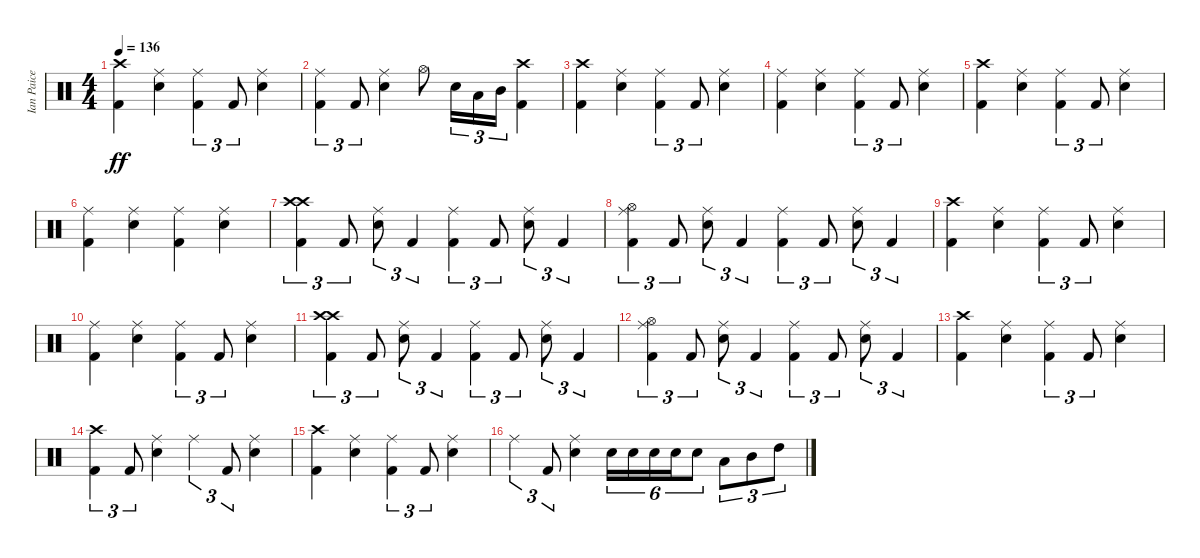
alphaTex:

\track ("Ian Paice" "Ian Paice") {instrument percussion}
\staff {score}
\articulation defaults
\ts (4 4)
\tempo 136
\clef neutral
\ks c
("Crash high (hit)" "Kick (hit) 2").4{dy ff} ("Ride (middle)" "Electric Snare (hit)").4 ("Ride (middle)" "Kick (hit) 2").4{tu (3 2)} "Kick (hit) 2".8{tu (3 2)} ("Ride (middle)" "Electric Snare (hit)").4 |
("Ride (middle)" "Kick (hit) 2").4{tu (3 2)} "Kick (hit) 2".8{tu (3 2)} ("Ride (middle)" "Electric Snare (hit)").4 "Hi-Hat (open)".8 "Electric Snare (hit)".16{tu (3 2)} "Low Tom (hit)".16{tu (3 2)} "Mid Tom (hit)".16{tu (3 2)} ("Crash high (hit)" "Kick (hit) 2").4 |
("Crash high (hit)" "Kick (hit) 2").4 ("Ride (middle)" "Electric Snare (hit)").4 ("Ride (middle)" "Kick (hit) 2").4{tu (3 2)} "Kick (hit) 2".8{tu (3 2)} ("Ride (middle)" "Electric Snare (hit)").4 |
("Ride (middle)" "Kick (hit) 2").4 ("Ride (middle)" "Electric Snare (hit)").4 ("Ride (middle)" "Kick (hit) 2").4{tu (3 2)} "Kick (hit) 2".8{tu (3 2)} ("Ride (middle)" "Electric Snare (hit)").4 |
("Crash high (hit)" "Kick (hit) 2").4 ("Ride (middle)" "Electric Snare (hit)").4 ("Ride (middle)" "Kick (hit) 2").4{tu (3 2)} "Kick (hit) 2".8{tu (3 2)} ("Ride (middle)" "Electric Snare (hit)").4 |
("Ride (middle)" "Kick (hit) 2").4 ("Ride (middle)" "Electric Snare (hit)").4 ("Ride (middle)" "Kick (hit) 2").4 ("Ride (middle)" "Electric Snare (hit)").4 |
("Crash high (hit)" "Crash high (hit)" "Kick (hit) 2").4{tu (3 2)} "Kick (hit) 2".8{tu (3 2)} ("Ride (middle)" "Electric Snare (hit)").8{tu (3 2)} "Kick (hit) 2".4{tu (3 2)} ("Ride (middle)" "Kick (hit) 2").4{tu (3 2)} "Kick (hit) 2".8{tu (3 2)} ("Ride (middle)" "Electric Snare (hit)").8{tu (3 2)} "Kick (hit) 2".4{tu (3 2)} |
("Ride (middle)" "Hi-Hat (open)" "Kick (hit) 2").4{tu (3 2)} "Kick (hit) 2".8{tu (3 2)} ("Ride (middle)" "Electric Snare (hit)").8{tu (3 2)} "Kick (hit) 2".4{tu (3 2)} ("Ride (middle)" "Kick (hit) 2").4{tu (3 2)} "Kick (hit) 2".8{tu (3 2)} ("Ride (middle)" "Electric Snare (hit)").8{tu (3 2)} "Kick (hit) 2".4{tu (3 2)} |
("Crash high (hit)" "Kick (hit) 2").4 ("Ride (middle)" "Electric Snare (hit)").4 ("Ride (middle)" "Kick (hit) 2").4{tu (3 2)} "Kick (hit) 2".8{tu (3 2)} ("Ride (middle)" "Electric Snare (hit)").4 |
("Ride (middle)" "Kick (hit) 2").4 ("Ride (middle)" "Electric Snare (hit)").4 ("Ride (middle)" "Kick (hit) 2").4{tu (3 2)} "Kick (hit) 2".8{tu (3 2)} ("Ride (middle)" "Electric Snare (hit)").4 |
("Crash high (hit)" "Crash high (hit)" "Kick (hit) 2").4{tu (3 2)} "Kick (hit) 2".8{tu (3 2)} ("Ride (middle)" "Electric Snare (hit)").8{tu (3 2)} "Kick (hit) 2".4{tu (3 2)} ("Ride (middle)" "Kick (hit) 2").4{tu (3 2)} "Kick (hit) 2".8{tu (3 2)} ("Ride (middle)" "Electric Snare (hit)").8{tu (3 2)} "Kick (hit) 2".4{tu (3 2)} |
("Ride (middle)" "Hi-Hat (open)" "Kick (hit) 2").4{tu (3 2)} "Kick (hit) 2".8{tu (3 2)} ("Ride (middle)" "Electric Snare (hit)").8{tu (3 2)} "Kick (hit) 2".4{tu (3 2)} ("Ride (middle)" "Kick (hit) 2").4{tu (3 2)} "Kick (hit) 2".8{tu (3 2)} ("Ride (middle)" "Electric Snare (hit)").8{tu (3 2)} "Kick (hit) 2".4{tu (3 2)} |
("Crash high (hit)" "Kick (hit) 2").4 ("Ride (middle)" "Electric Snare (hit)").4 ("Ride (middle)" "Kick (hit) 2").4{tu (3 2)} "Kick (hit) 2".8{tu (3 2)} ("Ride (middle)" "Electric Snare (hit)").4 |
("Crash high (hit)" "Kick (hit) 2").4{tu (3 2)} "Kick (hit) 2".8{tu (3 2)} ("Ride (middle)" "Electric Snare (hit)").4 "Ride (middle)".4{tu (3 2)} "Kick (hit) 2".8{tu (3 2)} ("Ride (middle)" "Electric Snare (hit)").4 |
("Crash high (hit)" "Kick (hit) 2").4 ("Ride (middle)" "Electric Snare (hit)").4 ("Ride (middle)" "Kick (hit) 2").4{tu (3 2)} "Kick (hit) 2".8{tu (3 2)} ("Ride (middle)" "Electric Snare (hit)").4 |
"Ride (middle)".4{tu (3 2)} "Kick (hit) 2".8{tu (3 2)} ("Ride (middle)" "Electric Snare (hit)").4 "Electric Snare (hit)".16{tu (6 4)} "Electric Snare (hit)".16{tu (6 4)} "Electric Snare (hit)".16{tu (6 4)} "Electric Snare (hit)".16{tu (6 4)} "Electric Snare (hit)".8{tu (6 4)} "Low Tom (hit)".8{tu (3 2)} "Mid Tom (hit)".8{tu (3 2)} "High Tom (hit)".8{tu (3 2)}
